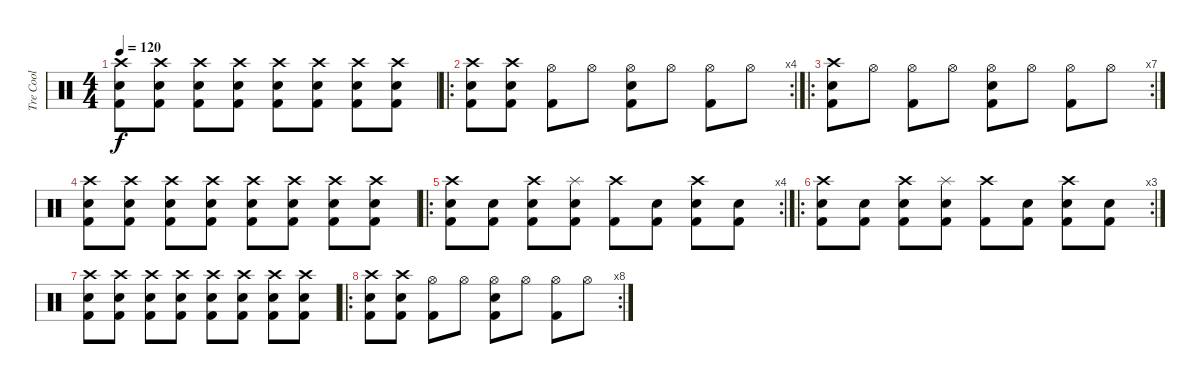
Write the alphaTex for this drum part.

\track ("Tre Cool" "Tre Cool") {instrument percussion}
\staff {score}
\articulation defaults
\ts (4 4)
\tempo 120
\clef neutral
\ks c
("Crash high (hit)" "Snare (hit) 2" "Kick (hit) 2").8{dy f} ("Crash high (hit)" "Snare (hit) 2" "Kick (hit) 2").8 ("Crash high (hit)" "Snare (hit) 2" "Kick (hit) 2").8 ("Crash high (hit)" "Snare (hit) 2" "Kick (hit) 2").8 ("Crash high (hit)" "Snare (hit) 2" "Kick (hit) 2").8 ("Crash high (hit)" "Snare (hit) 2" "Kick (hit) 2").8 ("Crash high (hit)" "Snare (hit) 2" "Kick (hit) 2").8 ("Crash high (hit)" "Snare (hit) 2" "Kick (hit) 2").8 |
\ro
\rc 4
("Crash high (hit)" "Snare (hit) 2" "Kick (hit) 2").8 ("Crash high (hit)" "Snare (hit) 2" "Kick (hit) 2").8 ("Hi-Hat (open)" "Kick (hit) 2").8 "Hi-Hat (open)".8 ("Hi-Hat (open)" "Snare (hit) 2" "Kick (hit) 2").8 "Hi-Hat (open)".8 ("Hi-Hat (open)" "Kick (hit) 2").8 "Hi-Hat (open)".8 |
\ro
\rc 7
("Crash high (hit)" "Snare (hit) 2" "Kick (hit) 2").8 "Hi-Hat (open)".8 ("Hi-Hat (open)" "Kick (hit) 2").8 "Hi-Hat (open)".8 ("Hi-Hat (open)" "Snare (hit) 2" "Kick (hit) 2").8 "Hi-Hat (open)".8 ("Hi-Hat (open)" "Kick (hit) 2").8 "Hi-Hat (open)".8 |
("Crash high (hit)" "Snare (hit) 2" "Kick (hit) 2").8 ("Crash high (hit)" "Snare (hit) 2" "Kick (hit) 2").8 ("Crash high (hit)" "Snare (hit) 2" "Kick (hit) 2").8 ("Crash high (hit)" "Snare (hit) 2" "Kick (hit) 2").8 ("Crash high (hit)" "Snare (hit) 2" "Kick (hit) 2").8 ("Crash high (hit)" "Snare (hit) 2" "Kick (hit) 2").8 ("Crash high (hit)" "Snare (hit) 2" "Kick (hit) 2").8 ("Crash high (hit)" "Snare (hit) 2" "Kick (hit) 2").8 |
\ro
\rc 4
("Crash high (hit)" "Snare (hit) 2" "Kick (hit) 2").8 ("Snare (hit) 2" "Kick (hit) 2").8 ("Crash high (hit)" "Snare (hit) 2" "Kick (hit) 2").8 ("Splash (hit)" "Snare (hit) 2" "Kick (hit) 2").8 ("Crash high (hit)" "Kick (hit) 2").8 ("Snare (hit) 2" "Kick (hit) 2").8 ("Crash high (hit)" "Snare (hit) 2" "Kick (hit) 2").8 ("Snare (hit) 2" "Kick (hit) 2").8 |
\ro
\rc 3
("Crash high (hit)" "Snare (hit) 2" "Kick (hit) 2").8 ("Snare (hit) 2" "Kick (hit) 2").8 ("Crash high (hit)" "Snare (hit) 2" "Kick (hit) 2").8 ("Splash (hit)" "Snare (hit) 2" "Kick (hit) 2").8 ("Crash high (hit)" "Kick (hit) 2").8 ("Snare (hit) 2" "Kick (hit) 2").8 ("Crash high (hit)" "Snare (hit) 2" "Kick (hit) 2").8 ("Snare (hit) 2" "Kick (hit) 2").8 |
("Crash high (hit)" "Snare (hit) 2" "Kick (hit) 2").8 ("Crash high (hit)" "Snare (hit) 2" "Kick (hit) 2").8 ("Crash high (hit)" "Snare (hit) 2" "Kick (hit) 2").8 ("Crash high (hit)" "Snare (hit) 2" "Kick (hit) 2").8 ("Crash high (hit)" "Snare (hit) 2" "Kick (hit) 2").8 ("Crash high (hit)" "Snare (hit) 2" "Kick (hit) 2").8 ("Crash high (hit)" "Snare (hit) 2" "Kick (hit) 2").8 ("Crash high (hit)" "Snare (hit) 2" "Kick (hit) 2").8 |
\ro
\rc 8
("Crash high (hit)" "Snare (hit) 2" "Kick (hit) 2").8 ("Crash high (hit)" "Snare (hit) 2" "Kick (hit) 2").8 ("Hi-Hat (open)" "Kick (hit) 2").8 "Hi-Hat (open)".8 ("Hi-Hat (open)" "Snare (hit) 2" "Kick (hit) 2").8 "Hi-Hat (open)".8 ("Hi-Hat (open)" "Kick (hit) 2").8 "Hi-Hat (open)".8
